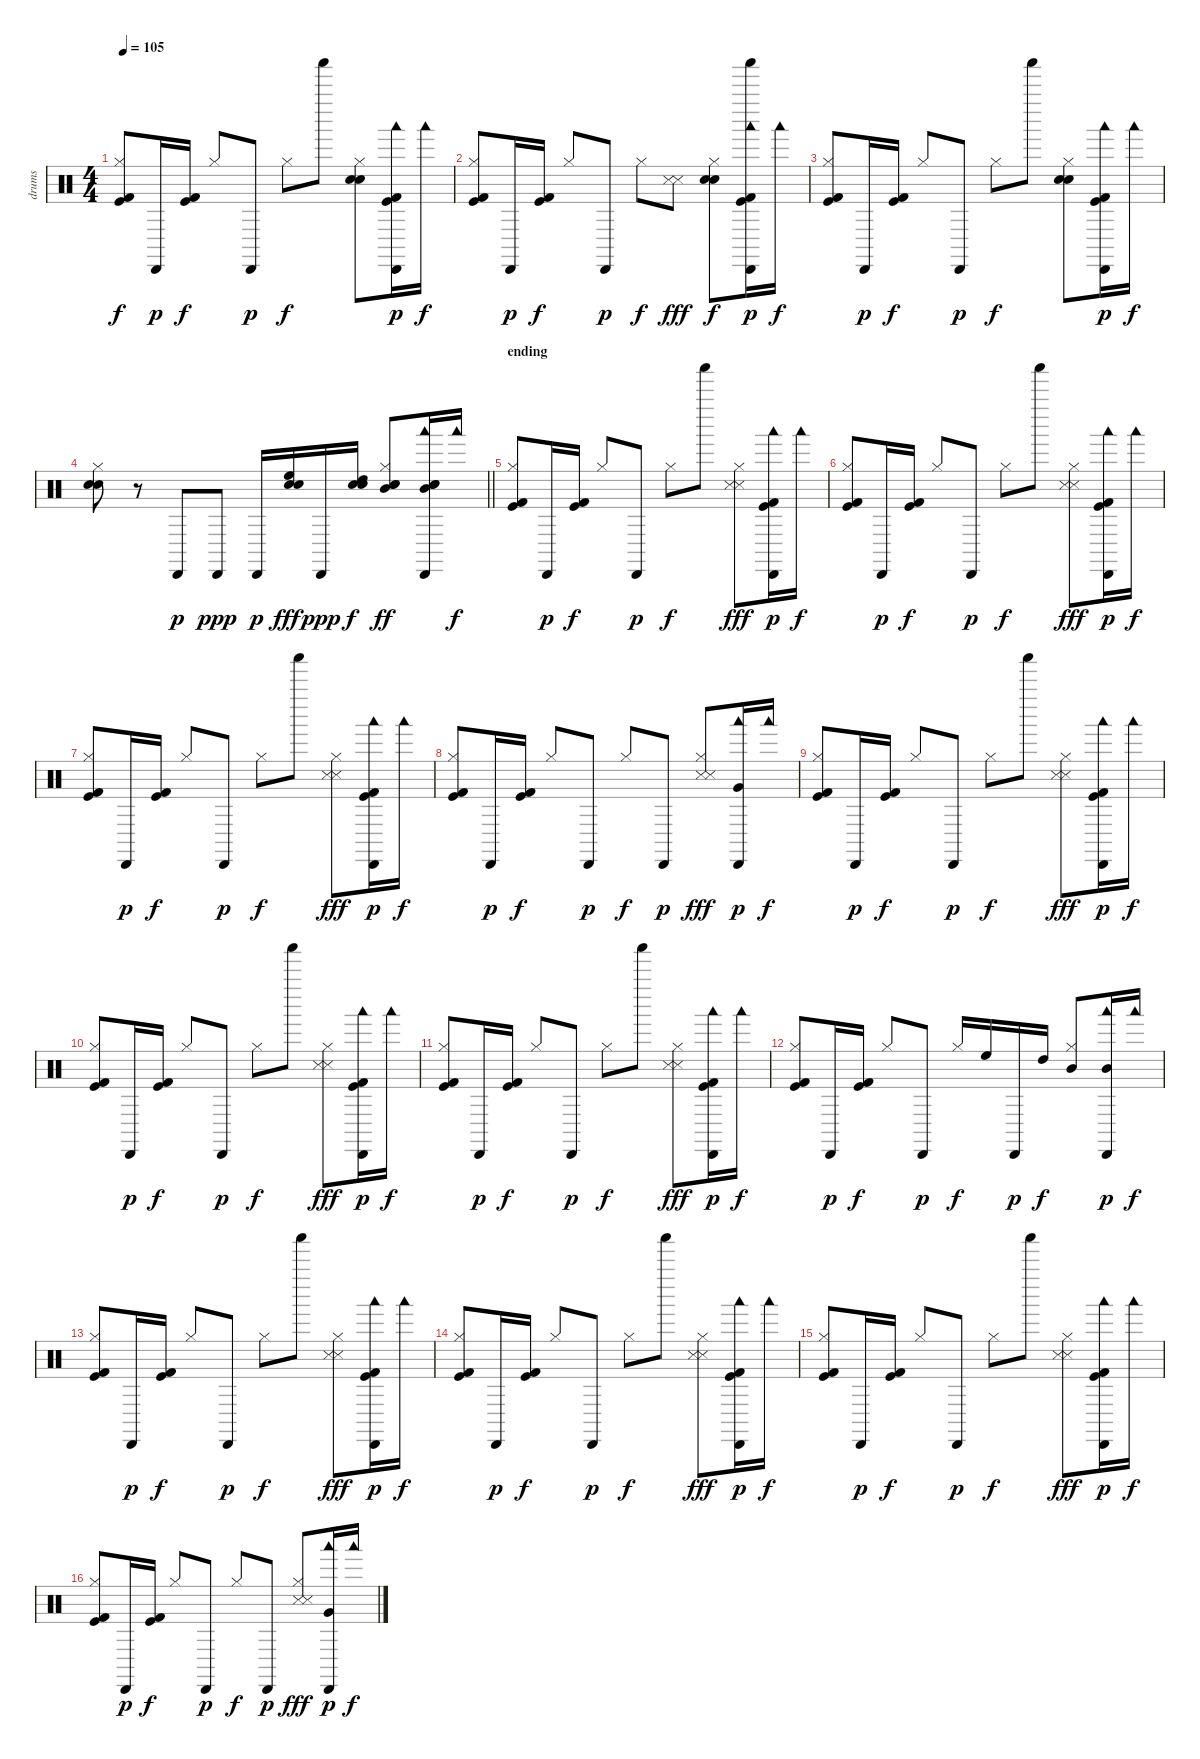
\track ("drums" "drums") {instrument percussion}
\staff {score}
\articulation defaults
\ts (4 4)
\tempo 105
\clef neutral
\ks c
("Hi-Hat (closed)" "Kick (hit)" "Kick (hit) 2").8{dy f balance 8} "Cabasa (hit)".16{dy p} ("Kick (hit)" "Kick (hit) 2").16{dy f} "Hi-Hat (closed)".8 "Cabasa (hit)".8{dy p} "Hi-Hat (closed)".8{dy f} "Shaker (hit)".8 ("Hi-Hat (closed)" "Snare (hit) 2" "Electric Snare (hit)").8{volume 16} ("Cabasa (hit)" "Woodblock low (hit)" "Kick (hit)" "Kick (hit) 2").16{dy p volume 13} "Woodblock low (hit)".16{dy f} |
("Hi-Hat (closed)" "Kick (hit)" "Kick (hit) 2").8{balance 8} "Cabasa (hit)".16{dy p} ("Kick (hit)" "Kick (hit) 2").16{dy f} "Hi-Hat (closed)".8 "Cabasa (hit)".8{dy p} "Hi-Hat (closed)".8{dy f} ("Snare (side stick) 3" "Snare (side stick) 3").8{dy fff} ("Hi-Hat (closed)" "Snare (hit) 2" "Electric Snare (hit)").8{dy f volume 16} ("Cabasa (hit)" "Shaker (hit)" "Woodblock low (hit)" "Kick (hit)" "Kick (hit) 2").16{dy p volume 13} "Woodblock low (hit)".16{dy f} |
("Hi-Hat (closed)" "Kick (hit)" "Kick (hit) 2").8{balance 8} "Cabasa (hit)".16{dy p} ("Kick (hit)" "Kick (hit) 2").16{dy f} "Hi-Hat (closed)".8 "Cabasa (hit)".8{dy p} "Hi-Hat (closed)".8{dy f} "Shaker (hit)".8 ("Hi-Hat (closed)" "Snare (hit) 2" "Electric Snare (hit)").8{volume 16} ("Cabasa (hit)" "Woodblock low (hit)" "Kick (hit)" "Kick (hit) 2").16{dy p volume 13} "Woodblock low (hit)".16{dy f} |
\barLineRight lightlight
("Hi-Hat (closed)" "Snare (hit) 2" "Electric Snare (hit)").8{volume 16} r.8 "Cabasa (hit)".8{dy p} "Cabasa (hit)".8{dy ppp} "Cabasa (hit)".16{dy p} ("Snare (hit) 2" "Electric Snare (hit)" "High Floor Tom (hit)").16{dy fff} "Cabasa (hit)".16{dy ppp} ("Snare (hit) 2" "Electric Snare (hit)" "High Tom (hit)").16{dy f} ("Hi-Hat (closed)" "Snare (hit) 2" "Electric Snare (hit)" "Mid Tom (hit)").8{dy ff} ("Cabasa (hit)" "Woodblock low (hit)" "Snare (hit) 2" "Electric Snare (hit)" "Mid Tom (hit)").16 "Woodblock low (hit)".16{dy f} |
\section ("" "ending")
("Hi-Hat (closed)" "Kick (hit)" "Kick (hit) 2").8{balance 8} "Cabasa (hit)".16{dy p} ("Kick (hit)" "Kick (hit) 2").16{dy f} "Hi-Hat (closed)".8 "Cabasa (hit)".8{dy p} "Hi-Hat (closed)".8{dy f} "Shaker (hit)".8 ("Hi-Hat (closed)" "Snare (side stick) 3" "Snare (side stick) 3").8{dy fff} ("Cabasa (hit)" "Woodblock low (hit)" "Kick (hit)" "Kick (hit) 2").16{dy p} "Woodblock low (hit)".16{dy f} |
("Hi-Hat (closed)" "Kick (hit)" "Kick (hit) 2").8 "Cabasa (hit)".16{dy p} ("Kick (hit)" "Kick (hit) 2").16{dy f} "Hi-Hat (closed)".8 "Cabasa (hit)".8{dy p} "Hi-Hat (closed)".8{dy f} "Shaker (hit)".8 ("Hi-Hat (closed)" "Snare (side stick) 3" "Snare (side stick) 3").8{dy fff} ("Cabasa (hit)" "Woodblock low (hit)" "Kick (hit)" "Kick (hit) 2").16{dy p} "Woodblock low (hit)".16{dy f} |
("Hi-Hat (closed)" "Kick (hit)" "Kick (hit) 2").8 "Cabasa (hit)".16{dy p} ("Kick (hit)" "Kick (hit) 2").16{dy f} "Hi-Hat (closed)".8 "Cabasa (hit)".8{dy p} "Hi-Hat (closed)".8{dy f} "Shaker (hit)".8 ("Hi-Hat (closed)" "Snare (side stick) 3" "Snare (side stick) 3").8{dy fff} ("Cabasa (hit)" "Woodblock low (hit)" "Kick (hit)" "Kick (hit) 2").16{dy p} "Woodblock low (hit)".16{dy f} |
("Hi-Hat (closed)" "Kick (hit)" "Kick (hit) 2").8 "Cabasa (hit)".16{dy p} ("Kick (hit)" "Kick (hit) 2").16{dy f} "Hi-Hat (closed)".8 "Cabasa (hit)".8{dy p} "Hi-Hat (closed)".8{dy f} "Cabasa (hit)".8{dy p} ("Hi-Hat (closed)" "Snare (side stick) 3" "Snare (side stick) 3").8{dy fff} ("Cabasa (hit)" "Woodblock low (hit)" "Very Low Tom (hit)").16{dy p} "Woodblock low (hit)".16{dy f} |
("Hi-Hat (closed)" "Kick (hit)" "Kick (hit) 2").8 "Cabasa (hit)".16{dy p} ("Kick (hit)" "Kick (hit) 2").16{dy f} "Hi-Hat (closed)".8 "Cabasa (hit)".8{dy p} "Hi-Hat (closed)".8{dy f} "Shaker (hit)".8 ("Hi-Hat (closed)" "Snare (side stick) 3" "Snare (side stick) 3").8{dy fff} ("Cabasa (hit)" "Woodblock low (hit)" "Kick (hit)" "Kick (hit) 2").16{dy p} "Woodblock low (hit)".16{dy f} |
("Hi-Hat (closed)" "Kick (hit)" "Kick (hit) 2").8 "Cabasa (hit)".16{dy p} ("Kick (hit)" "Kick (hit) 2").16{dy f} "Hi-Hat (closed)".8 "Cabasa (hit)".8{dy p} "Hi-Hat (closed)".8{dy f} "Shaker (hit)".8 ("Hi-Hat (closed)" "Snare (side stick) 3" "Snare (side stick) 3").8{dy fff} ("Cabasa (hit)" "Woodblock low (hit)" "Kick (hit)" "Kick (hit) 2").16{dy p} "Woodblock low (hit)".16{dy f} |
("Hi-Hat (closed)" "Kick (hit)" "Kick (hit) 2").8 "Cabasa (hit)".16{dy p} ("Kick (hit)" "Kick (hit) 2").16{dy f} "Hi-Hat (closed)".8 "Cabasa (hit)".8{dy p} "Hi-Hat (closed)".8{dy f} "Shaker (hit)".8 ("Hi-Hat (closed)" "Snare (side stick) 3" "Snare (side stick) 3").8{dy fff} ("Cabasa (hit)" "Woodblock low (hit)" "Kick (hit)" "Kick (hit) 2").16{dy p} "Woodblock low (hit)".16{dy f} |
("Hi-Hat (closed)" "Kick (hit)" "Kick (hit) 2").8 "Cabasa (hit)".16{dy p} ("Kick (hit)" "Kick (hit) 2").16{dy f} "Hi-Hat (closed)".8 "Cabasa (hit)".8{dy p} "Hi-Hat (closed)".16{dy f} "High Floor Tom (hit)".16{balance 2} "Cabasa (hit)".16{dy p} "High Tom (hit)".16{dy f} ("Hi-Hat (closed)" "Mid Tom (hit)").8{balance 14} ("Cabasa (hit)" "Woodblock low (hit)" "Mid Tom (hit)").16{dy p} "Woodblock low (hit)".16{dy f} |
("Hi-Hat (closed)" "Kick (hit)" "Kick (hit) 2").8{balance 8} "Cabasa (hit)".16{dy p} ("Kick (hit)" "Kick (hit) 2").16{dy f} "Hi-Hat (closed)".8 "Cabasa (hit)".8{dy p} "Hi-Hat (closed)".8{dy f} "Shaker (hit)".8 ("Hi-Hat (closed)" "Snare (side stick) 3" "Snare (side stick) 3").8{dy fff} ("Cabasa (hit)" "Woodblock low (hit)" "Kick (hit)" "Kick (hit) 2").16{dy p} "Woodblock low (hit)".16{dy f} |
("Hi-Hat (closed)" "Kick (hit)" "Kick (hit) 2").8 "Cabasa (hit)".16{dy p} ("Kick (hit)" "Kick (hit) 2").16{dy f} "Hi-Hat (closed)".8 "Cabasa (hit)".8{dy p} "Hi-Hat (closed)".8{dy f} "Shaker (hit)".8 ("Hi-Hat (closed)" "Snare (side stick) 3" "Snare (side stick) 3").8{dy fff} ("Cabasa (hit)" "Woodblock low (hit)" "Kick (hit)" "Kick (hit) 2").16{dy p} "Woodblock low (hit)".16{dy f} |
("Hi-Hat (closed)" "Kick (hit)" "Kick (hit) 2").8 "Cabasa (hit)".16{dy p} ("Kick (hit)" "Kick (hit) 2").16{dy f} "Hi-Hat (closed)".8 "Cabasa (hit)".8{dy p} "Hi-Hat (closed)".8{dy f} "Shaker (hit)".8 ("Hi-Hat (closed)" "Snare (side stick) 3" "Snare (side stick) 3").8{dy fff} ("Cabasa (hit)" "Woodblock low (hit)" "Kick (hit)" "Kick (hit) 2").16{dy p} "Woodblock low (hit)".16{dy f} |
("Hi-Hat (closed)" "Kick (hit)" "Kick (hit) 2").8 "Cabasa (hit)".16{dy p} ("Kick (hit)" "Kick (hit) 2").16{dy f} "Hi-Hat (closed)".8 "Cabasa (hit)".8{dy p} "Hi-Hat (closed)".8{dy f} "Cabasa (hit)".8{dy p} ("Hi-Hat (closed)" "Snare (side stick) 3" "Snare (side stick) 3").8{dy fff} ("Cabasa (hit)" "Woodblock low (hit)" "Very Low Tom (hit)").16{dy p} "Woodblock low (hit)".16{dy f}
